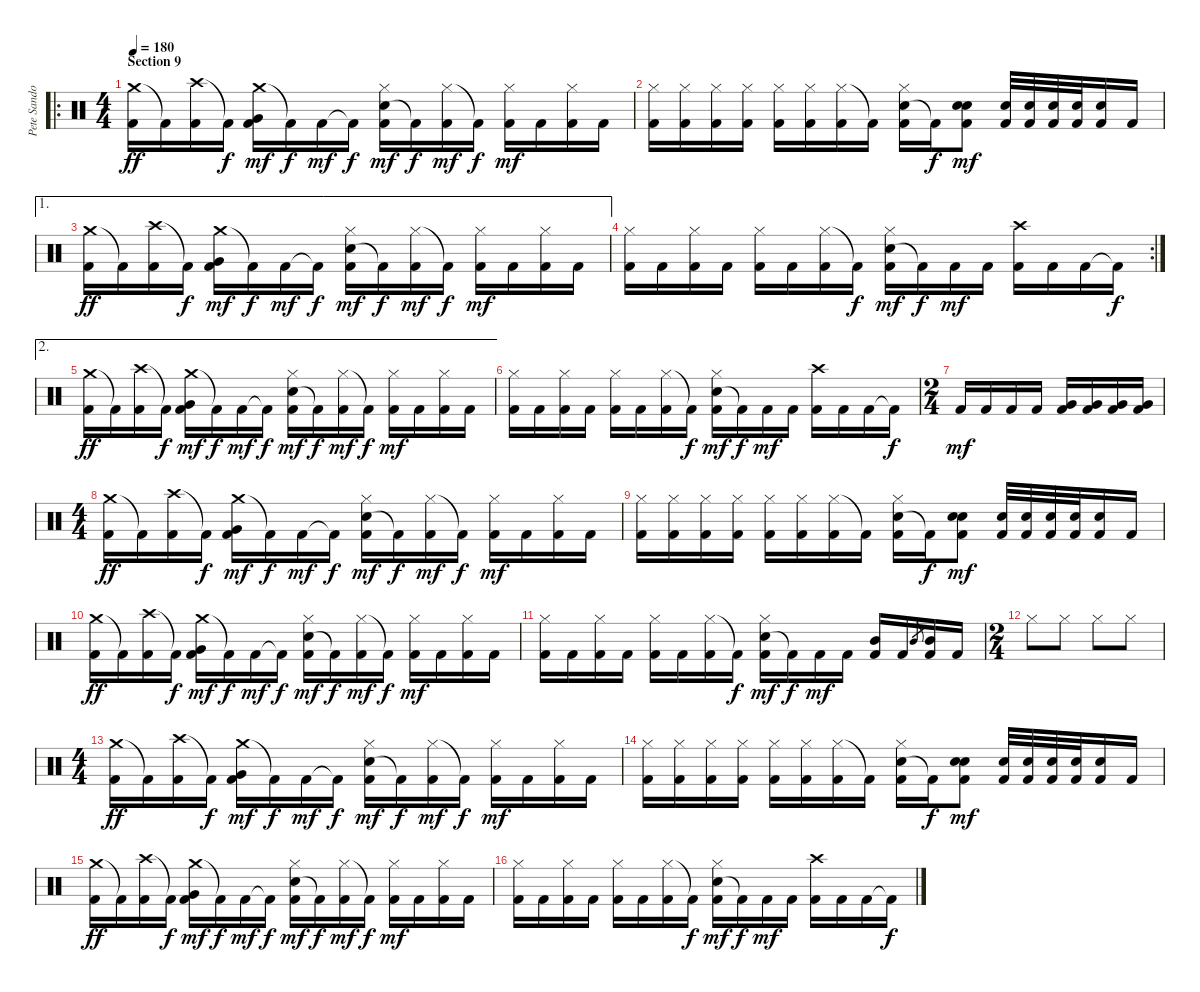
\track ("Pete Sandoval" "Pete Sando") {instrument percussion}
\staff {score}
\articulation defaults
\ro
\ts (4 4)
\section ("" "Section 9")
\tempo 180
\clef neutral
\ks c
("Crash medium (hit)" "Kick (hit) 2").16{dy ff} "Kick (hit) 2"{t}.16 ("Crash high (hit)" "Kick (hit) 2").16 "Kick (hit) 2"{t}.16{dy f} ("Crash medium (hit)" "Very Low Tom (hit)" "Kick (hit) 2").16{dy mf} "Kick (hit) 2"{t}.16{dy f} "Kick (hit) 2".16{dy mf} "Kick (hit) 2"{t}.16{dy f} ("Snare (hit) 2" "Hi-Hat (closed)" "Kick (hit) 2").16{dy mf} "Kick (hit) 2"{t}.16{dy f} ("Hi-Hat (closed)" "Kick (hit) 2").16{dy mf} "Kick (hit) 2"{t}.16{dy f} ("Hi-Hat (closed)" "Kick (hit) 2").16{dy mf} "Kick (hit) 2".16 ("Hi-Hat (closed)" "Kick (hit) 2").16 "Kick (hit) 2".16 |
("Hi-Hat (closed)" "Kick (hit) 2").16 ("Hi-Hat (closed)" "Kick (hit) 2").16 ("Hi-Hat (closed)" "Kick (hit) 2").16 ("Hi-Hat (closed)" "Kick (hit) 2").16 ("Hi-Hat (closed)" "Kick (hit) 2").16 ("Hi-Hat (closed)" "Kick (hit) 2").16 ("Hi-Hat (closed)" "Kick (hit) 2").16 "Kick (hit) 2"{t}.16 ("Snare (hit) 2" "Hi-Hat (closed)" "Kick (hit) 2").16 "Kick (hit) 2"{t}.16{dy f} ("Snare (hit) 2" "Snare (hit) 2" "Kick (hit) 2").8{dy mf} ("Snare (hit) 2" "Kick (hit) 2").32 ("Snare (hit) 2" "Kick (hit) 2").32 ("Snare (hit) 2" "Kick (hit) 2").32 ("Snare (hit) 2" "Kick (hit) 2").32 ("Snare (hit) 2" "Kick (hit) 2").16 "Kick (hit) 2".16 |
\ae 1
("Crash medium (hit)" "Kick (hit) 2").16{dy ff} "Kick (hit) 2"{t}.16 ("Crash high (hit)" "Kick (hit) 2").16 "Kick (hit) 2"{t}.16{dy f} ("Crash medium (hit)" "Very Low Tom (hit)" "Kick (hit) 2").16{dy mf} "Kick (hit) 2"{t}.16{dy f} "Kick (hit) 2".16{dy mf} "Kick (hit) 2"{t}.16{dy f} ("Snare (hit) 2" "Hi-Hat (closed)" "Kick (hit) 2").16{dy mf} "Kick (hit) 2"{t}.16{dy f} ("Hi-Hat (closed)" "Kick (hit) 2").16{dy mf} "Kick (hit) 2"{t}.16{dy f} ("Hi-Hat (closed)" "Kick (hit) 2").16{dy mf} "Kick (hit) 2".16 ("Hi-Hat (closed)" "Kick (hit) 2").16 "Kick (hit) 2".16 |
\rc 2
("Hi-Hat (closed)" "Kick (hit) 2").16 "Kick (hit) 2".16 ("Hi-Hat (closed)" "Kick (hit) 2").16 "Kick (hit) 2".16 ("Hi-Hat (closed)" "Kick (hit) 2").16 "Kick (hit) 2".16 ("Hi-Hat (closed)" "Kick (hit) 2").16 "Kick (hit) 2"{t}.16{dy f} ("Snare (hit) 2" "Hi-Hat (closed)" "Kick (hit) 2").16{dy mf} "Kick (hit) 2"{t}.16{dy f} "Kick (hit) 2".16{dy mf} "Kick (hit) 2".16 ("Crash high (hit)" "Kick (hit) 2").16 "Kick (hit) 2".16 "Kick (hit) 2".16 "Kick (hit) 2"{t}.16{dy f} |
\ae 2
("Crash medium (hit)" "Kick (hit) 2").16{dy ff} "Kick (hit) 2"{t}.16 ("Crash high (hit)" "Kick (hit) 2").16 "Kick (hit) 2"{t}.16{dy f} ("Crash medium (hit)" "Very Low Tom (hit)" "Kick (hit) 2").16{dy mf} "Kick (hit) 2"{t}.16{dy f} "Kick (hit) 2".16{dy mf} "Kick (hit) 2"{t}.16{dy f} ("Snare (hit) 2" "Hi-Hat (closed)" "Kick (hit) 2").16{dy mf} "Kick (hit) 2"{t}.16{dy f} ("Hi-Hat (closed)" "Kick (hit) 2").16{dy mf} "Kick (hit) 2"{t}.16{dy f} ("Hi-Hat (closed)" "Kick (hit) 2").16{dy mf} "Kick (hit) 2".16 ("Hi-Hat (closed)" "Kick (hit) 2").16 "Kick (hit) 2".16 |
("Hi-Hat (closed)" "Kick (hit) 2").16 "Kick (hit) 2".16 ("Hi-Hat (closed)" "Kick (hit) 2").16 "Kick (hit) 2".16 ("Hi-Hat (closed)" "Kick (hit) 2").16 "Kick (hit) 2".16 ("Hi-Hat (closed)" "Kick (hit) 2").16 "Kick (hit) 2"{t}.16{dy f} ("Snare (hit) 2" "Hi-Hat (closed)" "Kick (hit) 2").16{dy mf} "Kick (hit) 2"{t}.16{dy f} "Kick (hit) 2".16{dy mf} "Kick (hit) 2".16 ("Crash high (hit)" "Kick (hit) 2").16 "Kick (hit) 2".16 "Kick (hit) 2".16 "Kick (hit) 2"{t}.16{dy f} |
\ts (2 4)
"Kick (hit) 2".16{dy mf} "Kick (hit) 2".16 "Kick (hit) 2".16 "Kick (hit) 2".16 ("Very Low Tom (hit)" "Kick (hit) 2").16 ("Very Low Tom (hit)" "Kick (hit) 2").16 ("Very Low Tom (hit)" "Kick (hit) 2").16 ("Very Low Tom (hit)" "Kick (hit) 2").16 |
\ts (4 4)
("Crash medium (hit)" "Kick (hit) 2").16{dy ff} "Kick (hit) 2"{t}.16 ("Crash high (hit)" "Kick (hit) 2").16 "Kick (hit) 2"{t}.16{dy f} ("Crash medium (hit)" "Very Low Tom (hit)" "Kick (hit) 2").16{dy mf} "Kick (hit) 2"{t}.16{dy f} "Kick (hit) 2".16{dy mf} "Kick (hit) 2"{t}.16{dy f} ("Snare (hit) 2" "Hi-Hat (closed)" "Kick (hit) 2").16{dy mf} "Kick (hit) 2"{t}.16{dy f} ("Hi-Hat (closed)" "Kick (hit) 2").16{dy mf} "Kick (hit) 2"{t}.16{dy f} ("Hi-Hat (closed)" "Kick (hit) 2").16{dy mf} "Kick (hit) 2".16 ("Hi-Hat (closed)" "Kick (hit) 2").16 "Kick (hit) 2".16 |
("Hi-Hat (closed)" "Kick (hit) 2").16 ("Hi-Hat (closed)" "Kick (hit) 2").16 ("Hi-Hat (closed)" "Kick (hit) 2").16 ("Hi-Hat (closed)" "Kick (hit) 2").16 ("Hi-Hat (closed)" "Kick (hit) 2").16 ("Hi-Hat (closed)" "Kick (hit) 2").16 ("Hi-Hat (closed)" "Kick (hit) 2").16 "Kick (hit) 2"{t}.16 ("Snare (hit) 2" "Hi-Hat (closed)" "Kick (hit) 2").16 "Kick (hit) 2"{t}.16{dy f} ("Snare (hit) 2" "Snare (hit) 2" "Kick (hit) 2").8{dy mf} ("Snare (hit) 2" "Kick (hit) 2").32 ("Snare (hit) 2" "Kick (hit) 2").32 ("Snare (hit) 2" "Kick (hit) 2").32 ("Snare (hit) 2" "Kick (hit) 2").32 ("Snare (hit) 2" "Kick (hit) 2").16 "Kick (hit) 2".16 |
("Crash medium (hit)" "Kick (hit) 2").16{dy ff} "Kick (hit) 2"{t}.16 ("Crash high (hit)" "Kick (hit) 2").16 "Kick (hit) 2"{t}.16{dy f} ("Crash medium (hit)" "Very Low Tom (hit)" "Kick (hit) 2").16{dy mf} "Kick (hit) 2"{t}.16{dy f} "Kick (hit) 2".16{dy mf} "Kick (hit) 2"{t}.16{dy f} ("Snare (hit) 2" "Hi-Hat (closed)" "Kick (hit) 2").16{dy mf} "Kick (hit) 2"{t}.16{dy f} ("Hi-Hat (closed)" "Kick (hit) 2").16{dy mf} "Kick (hit) 2"{t}.16{dy f} ("Hi-Hat (closed)" "Kick (hit) 2").16{dy mf} "Kick (hit) 2".16 ("Hi-Hat (closed)" "Kick (hit) 2").16 "Kick (hit) 2".16 |
("Hi-Hat (closed)" "Kick (hit) 2").16 "Kick (hit) 2".16 ("Hi-Hat (closed)" "Kick (hit) 2").16 "Kick (hit) 2".16 ("Hi-Hat (closed)" "Kick (hit) 2").16 "Kick (hit) 2".16 ("Hi-Hat (closed)" "Kick (hit) 2").16 "Kick (hit) 2"{t}.16{dy f} ("Snare (hit) 2" "Hi-Hat (closed)" "Kick (hit) 2").16{dy mf} "Kick (hit) 2"{t}.16{dy f} "Kick (hit) 2".16{dy mf} "Kick (hit) 2".16 ("Mid Tom (hit)" "Kick (hit) 2").16 "Kick (hit) 2".16 "Mid Tom (hit)".8{gr} ("Mid Tom (hit)" "Kick (hit) 2").16 "Kick (hit) 2".16 |
\ts (2 4)
"Hi-Hat (closed)".8 "Hi-Hat (closed)".8 "Hi-Hat (closed)".8 "Hi-Hat (closed)".8 |
\ts (4 4)
("Crash medium (hit)" "Kick (hit) 2").16{dy ff} "Kick (hit) 2"{t}.16 ("Crash high (hit)" "Kick (hit) 2").16 "Kick (hit) 2"{t}.16{dy f} ("Crash medium (hit)" "Very Low Tom (hit)" "Kick (hit) 2").16{dy mf} "Kick (hit) 2"{t}.16{dy f} "Kick (hit) 2".16{dy mf} "Kick (hit) 2"{t}.16{dy f} ("Snare (hit) 2" "Hi-Hat (closed)" "Kick (hit) 2").16{dy mf} "Kick (hit) 2"{t}.16{dy f} ("Hi-Hat (closed)" "Kick (hit) 2").16{dy mf} "Kick (hit) 2"{t}.16{dy f} ("Hi-Hat (closed)" "Kick (hit) 2").16{dy mf} "Kick (hit) 2".16 ("Hi-Hat (closed)" "Kick (hit) 2").16 "Kick (hit) 2".16 |
("Hi-Hat (closed)" "Kick (hit) 2").16 ("Hi-Hat (closed)" "Kick (hit) 2").16 ("Hi-Hat (closed)" "Kick (hit) 2").16 ("Hi-Hat (closed)" "Kick (hit) 2").16 ("Hi-Hat (closed)" "Kick (hit) 2").16 ("Hi-Hat (closed)" "Kick (hit) 2").16 ("Hi-Hat (closed)" "Kick (hit) 2").16 "Kick (hit) 2"{t}.16 ("Snare (hit) 2" "Hi-Hat (closed)" "Kick (hit) 2").16 "Kick (hit) 2"{t}.16{dy f} ("Snare (hit) 2" "Snare (hit) 2" "Kick (hit) 2").8{dy mf} ("Snare (hit) 2" "Kick (hit) 2").32 ("Snare (hit) 2" "Kick (hit) 2").32 ("Snare (hit) 2" "Kick (hit) 2").32 ("Snare (hit) 2" "Kick (hit) 2").32 ("Snare (hit) 2" "Kick (hit) 2").16 "Kick (hit) 2".16 |
("Crash medium (hit)" "Kick (hit) 2").16{dy ff} "Kick (hit) 2"{t}.16 ("Crash high (hit)" "Kick (hit) 2").16 "Kick (hit) 2"{t}.16{dy f} ("Crash medium (hit)" "Very Low Tom (hit)" "Kick (hit) 2").16{dy mf} "Kick (hit) 2"{t}.16{dy f} "Kick (hit) 2".16{dy mf} "Kick (hit) 2"{t}.16{dy f} ("Snare (hit) 2" "Hi-Hat (closed)" "Kick (hit) 2").16{dy mf} "Kick (hit) 2"{t}.16{dy f} ("Hi-Hat (closed)" "Kick (hit) 2").16{dy mf} "Kick (hit) 2"{t}.16{dy f} ("Hi-Hat (closed)" "Kick (hit) 2").16{dy mf} "Kick (hit) 2".16 ("Hi-Hat (closed)" "Kick (hit) 2").16 "Kick (hit) 2".16 |
("Hi-Hat (closed)" "Kick (hit) 2").16 "Kick (hit) 2".16 ("Hi-Hat (closed)" "Kick (hit) 2").16 "Kick (hit) 2".16 ("Hi-Hat (closed)" "Kick (hit) 2").16 "Kick (hit) 2".16 ("Hi-Hat (closed)" "Kick (hit) 2").16 "Kick (hit) 2"{t}.16{dy f} ("Snare (hit) 2" "Hi-Hat (closed)" "Kick (hit) 2").16{dy mf} "Kick (hit) 2"{t}.16{dy f} "Kick (hit) 2".16{dy mf} "Kick (hit) 2".16 ("Crash high (hit)" "Kick (hit) 2").16 "Kick (hit) 2".16 "Kick (hit) 2".16 "Kick (hit) 2"{t}.16{dy f}
